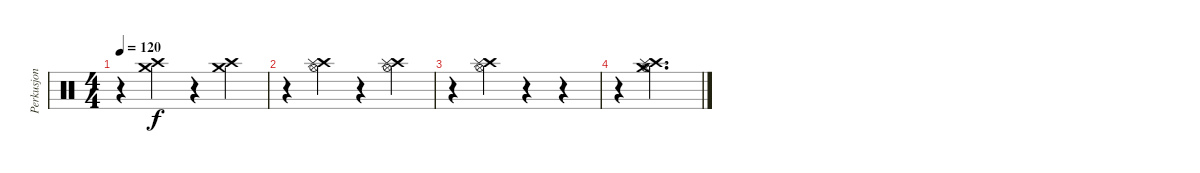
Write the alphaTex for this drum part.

\track ("Perkusjon" "Perkusjon") {instrument percussion}
\staff {score}
\articulation defaults
\ts (4 4)
\tempo 120
\clef neutral
\ks c
r.4{dy f} ("Crash high (hit)" "Crash medium (hit)").4 r.4 ("Crash high (hit)" "Crash medium (hit)").4 |
r.4 ("Crash high (hit)" "Hi-Hat (open)" "Splash (hit)").4 r.4 ("Crash high (hit)" "Hi-Hat (open)" "Splash (hit)").4 |
r.4 ("Crash high (hit)" "Hi-Hat (open)" "Splash (hit)").4 r.4 r.4 |
r.4 ("Crash medium (hit)" "Crash high (hit)" "Hi-Hat (open)" "Splash (hit)").2{d}
